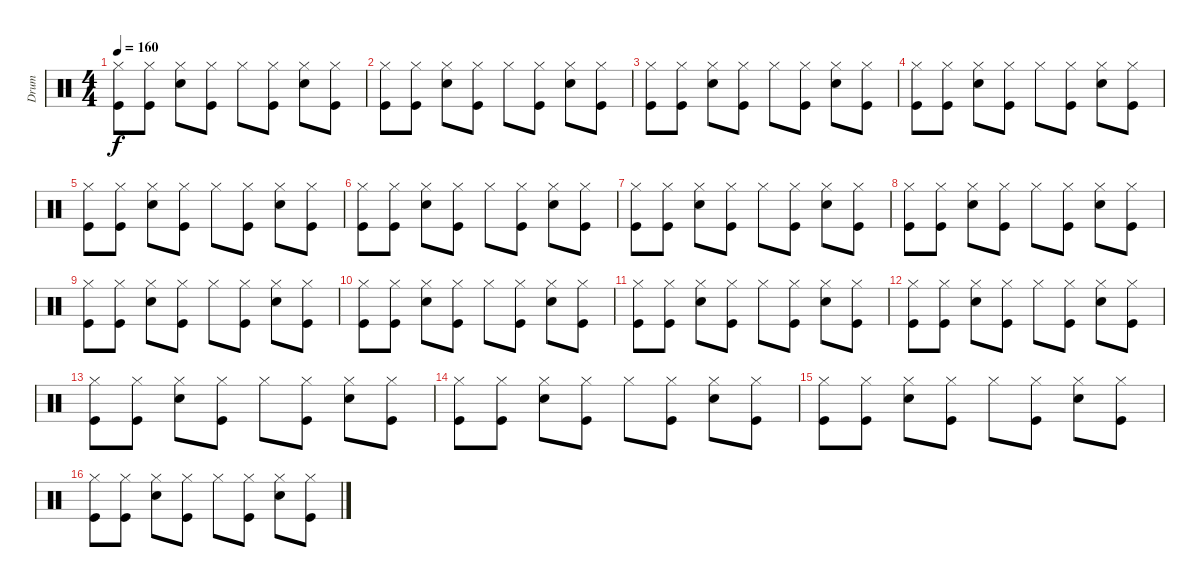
\track ("Drum" "Drum") {instrument percussion}
\staff {score}
\articulation defaults
\ts (4 4)
\tempo 160
\clef neutral
\ks c
("Hi-Hat (closed)" "Kick (hit)").8{dy f} ("Hi-Hat (closed)" "Kick (hit)").8 ("Hi-Hat (closed)" "Electric Snare (hit)").8 ("Hi-Hat (closed)" "Kick (hit)").8 "Hi-Hat (closed)".8 ("Hi-Hat (closed)" "Kick (hit)").8 ("Hi-Hat (closed)" "Electric Snare (hit)").8 ("Hi-Hat (closed)" "Kick (hit)").8 |
("Hi-Hat (closed)" "Kick (hit)").8 ("Hi-Hat (closed)" "Kick (hit)").8 ("Hi-Hat (closed)" "Electric Snare (hit)").8 ("Hi-Hat (closed)" "Kick (hit)").8 "Hi-Hat (closed)".8 ("Hi-Hat (closed)" "Kick (hit)").8 ("Hi-Hat (closed)" "Electric Snare (hit)").8 ("Hi-Hat (closed)" "Kick (hit)").8 |
("Hi-Hat (closed)" "Kick (hit)").8 ("Hi-Hat (closed)" "Kick (hit)").8 ("Hi-Hat (closed)" "Electric Snare (hit)").8 ("Hi-Hat (closed)" "Kick (hit)").8 "Hi-Hat (closed)".8 ("Hi-Hat (closed)" "Kick (hit)").8 ("Hi-Hat (closed)" "Electric Snare (hit)").8 ("Hi-Hat (closed)" "Kick (hit)").8 |
("Hi-Hat (closed)" "Kick (hit)").8 ("Hi-Hat (closed)" "Kick (hit)").8 ("Hi-Hat (closed)" "Electric Snare (hit)").8 ("Hi-Hat (closed)" "Kick (hit)").8 "Hi-Hat (closed)".8 ("Hi-Hat (closed)" "Kick (hit)").8 ("Hi-Hat (closed)" "Electric Snare (hit)").8 ("Hi-Hat (closed)" "Kick (hit)").8 |
("Hi-Hat (closed)" "Kick (hit)").8 ("Hi-Hat (closed)" "Kick (hit)").8 ("Hi-Hat (closed)" "Electric Snare (hit)").8 ("Hi-Hat (closed)" "Kick (hit)").8 "Hi-Hat (closed)".8 ("Hi-Hat (closed)" "Kick (hit)").8 ("Hi-Hat (closed)" "Electric Snare (hit)").8 ("Hi-Hat (closed)" "Kick (hit)").8 |
("Hi-Hat (closed)" "Kick (hit)").8 ("Hi-Hat (closed)" "Kick (hit)").8 ("Hi-Hat (closed)" "Electric Snare (hit)").8 ("Hi-Hat (closed)" "Kick (hit)").8 "Hi-Hat (closed)".8 ("Hi-Hat (closed)" "Kick (hit)").8 ("Hi-Hat (closed)" "Electric Snare (hit)").8 ("Hi-Hat (closed)" "Kick (hit)").8 |
("Hi-Hat (closed)" "Kick (hit)").8 ("Hi-Hat (closed)" "Kick (hit)").8 ("Hi-Hat (closed)" "Electric Snare (hit)").8 ("Hi-Hat (closed)" "Kick (hit)").8 "Hi-Hat (closed)".8 ("Hi-Hat (closed)" "Kick (hit)").8 ("Hi-Hat (closed)" "Electric Snare (hit)").8 ("Hi-Hat (closed)" "Kick (hit)").8 |
("Hi-Hat (closed)" "Kick (hit)").8 ("Hi-Hat (closed)" "Kick (hit)").8 ("Hi-Hat (closed)" "Electric Snare (hit)").8 ("Hi-Hat (closed)" "Kick (hit)").8 "Hi-Hat (closed)".8 ("Hi-Hat (closed)" "Kick (hit)").8 ("Hi-Hat (closed)" "Electric Snare (hit)").8 ("Hi-Hat (closed)" "Kick (hit)").8 |
("Hi-Hat (closed)" "Kick (hit)").8 ("Hi-Hat (closed)" "Kick (hit)").8 ("Hi-Hat (closed)" "Electric Snare (hit)").8 ("Hi-Hat (closed)" "Kick (hit)").8 "Hi-Hat (closed)".8 ("Hi-Hat (closed)" "Kick (hit)").8 ("Hi-Hat (closed)" "Electric Snare (hit)").8 ("Hi-Hat (closed)" "Kick (hit)").8 |
("Hi-Hat (closed)" "Kick (hit)").8 ("Hi-Hat (closed)" "Kick (hit)").8 ("Hi-Hat (closed)" "Electric Snare (hit)").8 ("Hi-Hat (closed)" "Kick (hit)").8 "Hi-Hat (closed)".8 ("Hi-Hat (closed)" "Kick (hit)").8 ("Hi-Hat (closed)" "Electric Snare (hit)").8 ("Hi-Hat (closed)" "Kick (hit)").8 |
("Hi-Hat (closed)" "Kick (hit)").8 ("Hi-Hat (closed)" "Kick (hit)").8 ("Hi-Hat (closed)" "Electric Snare (hit)").8 ("Hi-Hat (closed)" "Kick (hit)").8 "Hi-Hat (closed)".8 ("Hi-Hat (closed)" "Kick (hit)").8 ("Hi-Hat (closed)" "Electric Snare (hit)").8 ("Hi-Hat (closed)" "Kick (hit)").8 |
("Hi-Hat (closed)" "Kick (hit)").8 ("Hi-Hat (closed)" "Kick (hit)").8 ("Hi-Hat (closed)" "Electric Snare (hit)").8 ("Hi-Hat (closed)" "Kick (hit)").8 "Hi-Hat (closed)".8 ("Hi-Hat (closed)" "Kick (hit)").8 ("Hi-Hat (closed)" "Electric Snare (hit)").8 ("Hi-Hat (closed)" "Kick (hit)").8 |
("Hi-Hat (closed)" "Kick (hit)").8 ("Hi-Hat (closed)" "Kick (hit)").8 ("Hi-Hat (closed)" "Electric Snare (hit)").8 ("Hi-Hat (closed)" "Kick (hit)").8 "Hi-Hat (closed)".8 ("Hi-Hat (closed)" "Kick (hit)").8 ("Hi-Hat (closed)" "Electric Snare (hit)").8 ("Hi-Hat (closed)" "Kick (hit)").8 |
("Hi-Hat (closed)" "Kick (hit)").8 ("Hi-Hat (closed)" "Kick (hit)").8 ("Hi-Hat (closed)" "Electric Snare (hit)").8 ("Hi-Hat (closed)" "Kick (hit)").8 "Hi-Hat (closed)".8 ("Hi-Hat (closed)" "Kick (hit)").8 ("Hi-Hat (closed)" "Electric Snare (hit)").8 ("Hi-Hat (closed)" "Kick (hit)").8 |
("Hi-Hat (closed)" "Kick (hit)").8 ("Hi-Hat (closed)" "Kick (hit)").8 ("Hi-Hat (closed)" "Electric Snare (hit)").8 ("Hi-Hat (closed)" "Kick (hit)").8 "Hi-Hat (closed)".8 ("Hi-Hat (closed)" "Kick (hit)").8 ("Hi-Hat (closed)" "Electric Snare (hit)").8 ("Hi-Hat (closed)" "Kick (hit)").8 |
("Hi-Hat (closed)" "Kick (hit)").8 ("Hi-Hat (closed)" "Kick (hit)").8 ("Hi-Hat (closed)" "Electric Snare (hit)").8 ("Hi-Hat (closed)" "Kick (hit)").8 "Hi-Hat (closed)".8 ("Hi-Hat (closed)" "Kick (hit)").8 ("Hi-Hat (closed)" "Electric Snare (hit)").8 ("Hi-Hat (closed)" "Kick (hit)").8
